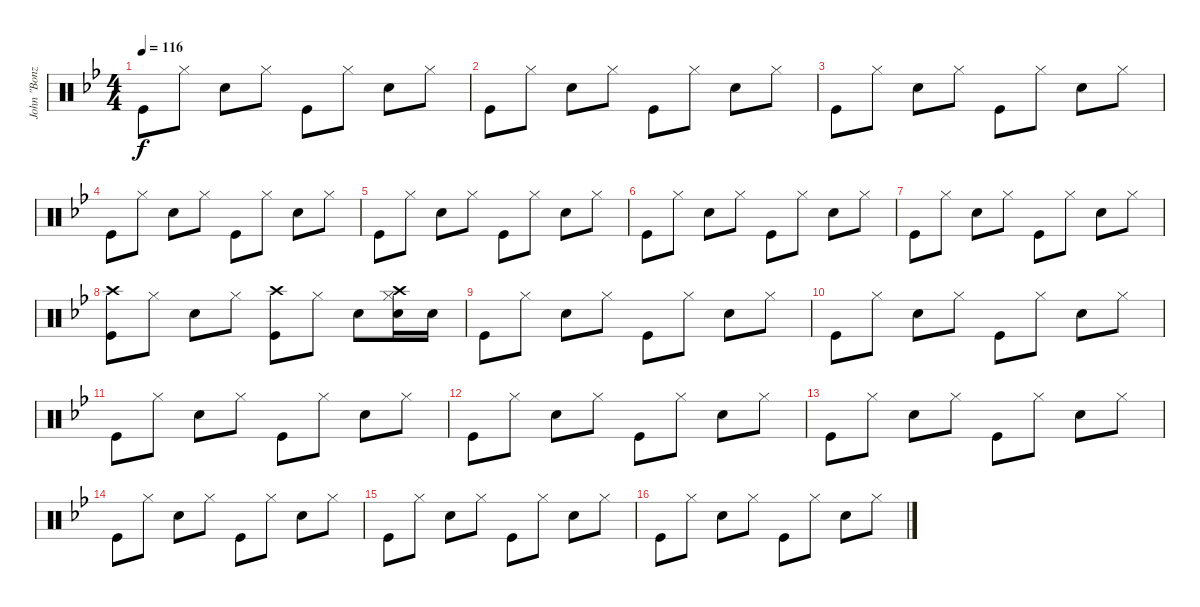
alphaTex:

\track ("John \"Bonzo\" Bonham" "John \"Bonz") {instrument percussion}
\staff {score}
\articulation defaults
\ts (4 4)
\tempo 116
\clef neutral
\ks bb "Kick (hit)".8{dy f} "Hi-Hat (closed)".8 "Snare (hit) 2".8 "Hi-Hat (closed)".8 "Kick (hit)".8 "Hi-Hat (closed)".8 "Snare (hit) 2".8 "Hi-Hat (closed)".8
|
"Kick (hit)".8 "Hi-Hat (closed)".8 "Snare (hit) 2".8 "Hi-Hat (closed)".8 "Kick (hit)".8 "Hi-Hat (closed)".8 "Snare (hit) 2".8 "Hi-Hat (closed)".8 |
"Kick (hit)".8 "Hi-Hat (closed)".8 "Snare (hit) 2".8 "Hi-Hat (closed)".8 "Kick (hit)".8 "Hi-Hat (closed)".8 "Snare (hit) 2".8 "Hi-Hat (closed)".8 |
"Kick (hit)".8 "Hi-Hat (closed)".8 "Snare (hit) 2".8 "Hi-Hat (closed)".8 "Kick (hit)".8 "Hi-Hat (closed)".8 "Snare (hit) 2".8 "Hi-Hat (closed)".8 |
"Kick (hit)".8 "Hi-Hat (closed)".8 "Snare (hit) 2".8 "Hi-Hat (closed)".8 "Kick (hit)".8 "Hi-Hat (closed)".8 "Snare (hit) 2".8 "Hi-Hat (closed)".8 |
"Kick (hit)".8 "Hi-Hat (closed)".8 "Snare (hit) 2".8 "Hi-Hat (closed)".8 "Kick (hit)".8 "Hi-Hat (closed)".8 "Snare (hit) 2".8 "Hi-Hat (closed)".8 |
"Kick (hit)".8 "Hi-Hat (closed)".8 "Snare (hit) 2".8 "Hi-Hat (closed)".8 "Kick (hit)".8 "Hi-Hat (closed)".8 "Snare (hit) 2".8 "Hi-Hat (closed)".8 |
("Kick (hit)" "Crash high (hit)").8 "Hi-Hat (closed)".8 "Snare (hit) 2".8 "Hi-Hat (closed)".8 ("Kick (hit)" "Crash high (hit)").8 "Hi-Hat (closed)".8 "Snare (hit) 2".8 ("Snare (hit) 2" "Hi-Hat (closed)" "Crash high (hit)").16 "Snare (hit) 2".16 |
"Kick (hit)".8 "Hi-Hat (closed)".8 "Snare (hit) 2".8 "Hi-Hat (closed)".8 "Kick (hit)".8 "Hi-Hat (closed)".8 "Snare (hit) 2".8 "Hi-Hat (closed)".8 |
"Kick (hit)".8 "Hi-Hat (closed)".8 "Snare (hit) 2".8 "Hi-Hat (closed)".8 "Kick (hit)".8 "Hi-Hat (closed)".8 "Snare (hit) 2".8 "Hi-Hat (closed)".8 |
"Kick (hit)".8 "Hi-Hat (closed)".8 "Snare (hit) 2".8 "Hi-Hat (closed)".8 "Kick (hit)".8 "Hi-Hat (closed)".8 "Snare (hit) 2".8 "Hi-Hat (closed)".8 |
"Kick (hit)".8 "Hi-Hat (closed)".8 "Snare (hit) 2".8 "Hi-Hat (closed)".8 "Kick (hit)".8 "Hi-Hat (closed)".8 "Snare (hit) 2".8 "Hi-Hat (closed)".8 |
"Kick (hit)".8 "Hi-Hat (closed)".8 "Snare (hit) 2".8 "Hi-Hat (closed)".8 "Kick (hit)".8 "Hi-Hat (closed)".8 "Snare (hit) 2".8 "Hi-Hat (closed)".8 |
"Kick (hit)".8 "Hi-Hat (closed)".8 "Snare (hit) 2".8 "Hi-Hat (closed)".8 "Kick (hit)".8 "Hi-Hat (closed)".8 "Snare (hit) 2".8 "Hi-Hat (closed)".8 |
"Kick (hit)".8 "Hi-Hat (closed)".8 "Snare (hit) 2".8 "Hi-Hat (closed)".8 "Kick (hit)".8 "Hi-Hat (closed)".8 "Snare (hit) 2".8 "Hi-Hat (closed)".8 |
"Kick (hit)".8 "Hi-Hat (closed)".8 "Snare (hit) 2".8 "Hi-Hat (closed)".8 "Kick (hit)".8 "Hi-Hat (closed)".8 "Snare (hit) 2".8 "Hi-Hat (closed)".8
